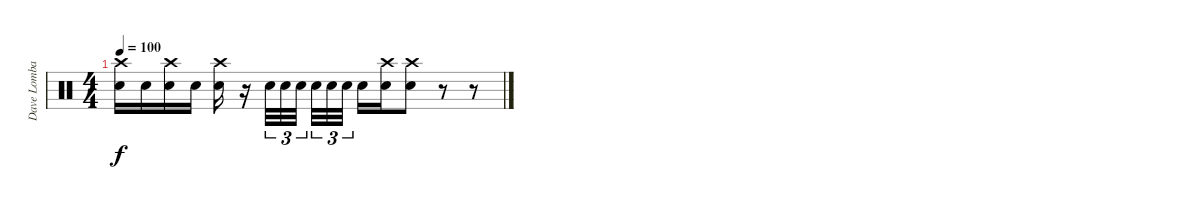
\track ("Dave Lombardo:" "Dave Lomba") {instrument percussion}
\staff {score}
\articulation defaults
\ts (4 4)
\tempo 100
\clef neutral
\ks c
("Crash high (hit)" "Electric Snare (hit)").16{dy f} "Electric Snare (hit)".16 ("Crash high (hit)" "Electric Snare (hit)").16 "Electric Snare (hit)".16 ("Crash high (hit)" "Electric Snare (hit)").16 r.16 "Electric Snare (hit)".32{tu (3 2)} "Electric Snare (hit)".32{tu (3 2)} "Electric Snare (hit)".32{tu (3 2) beam splitsecondary} "Electric Snare (hit)".32{tu (3 2)} "Electric Snare (hit)".32{tu (3 2)} "Electric Snare (hit)".32{tu (3 2)} "Electric Snare (hit)".16 ("Crash high (hit)" "Electric Snare (hit)").16 ("Crash high (hit)" "Electric Snare (hit)").8 r.8 r.8
